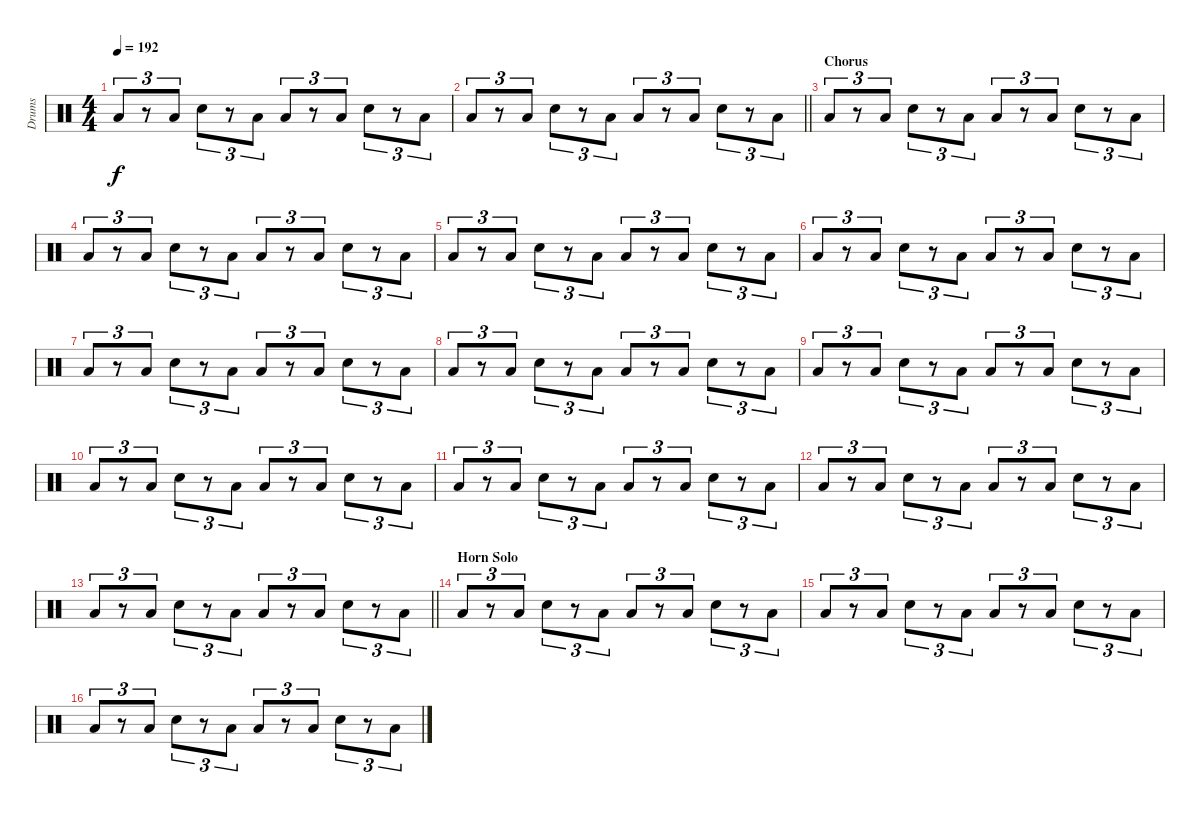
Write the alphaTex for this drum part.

\track ("Drums" "Drums") {instrument percussion}
\staff {score}
\articulation defaults
\ts (4 4)
\tempo 192
\clef neutral
\ks c "Low Floor Tom (hit)".8{tu (3 2) dy f}
r.8{tu (3 2)} "Low Tom (hit)".8{tu (3 2)} "Snare (hit) 2".8{tu (3 2)} r.8{tu (3 2)} "Low Tom (hit)".8{tu (3 2)} "Low Floor Tom (hit)".8{tu (3 2)} r.8{tu (3 2)} "Low Tom (hit)".8{tu (3 2)} "Snare (hit) 2".8{tu (3 2)} r.8{tu (3 2)} "Low Tom (hit)".8{tu (3 2)} |
\barLineRight lightlight "Low Floor Tom (hit)".8{tu (3 2)}
r.8{tu (3 2)} "Low Tom (hit)".8{tu (3 2)} "Snare (hit) 2".8{tu (3 2)} r.8{tu (3 2)} "Low Tom (hit)".8{tu (3 2)} "Low Floor Tom (hit)".8{tu (3 2)} r.8{tu (3 2)} "Low Tom (hit)".8{tu (3 2)} "Snare (hit) 2".8{tu (3 2)} r.8{tu (3 2)} "Low Tom (hit)".8{tu (3 2)} |
\section ("" "Chorus")
"Low Floor Tom (hit)".8{tu (3 2)} r.8{tu (3 2)} "Low Tom (hit)".8{tu (3 2)} "Snare (hit) 2".8{tu (3 2)} r.8{tu (3 2)} "Low Tom (hit)".8{tu (3 2)} "Low Floor Tom (hit)".8{tu (3 2)} r.8{tu (3 2)} "Low Tom (hit)".8{tu (3 2)} "Snare (hit) 2".8{tu (3 2)} r.8{tu (3 2)} "Low Tom (hit)".8{tu (3 2)} |
"Low Floor Tom (hit)".8{tu (3 2)} r.8{tu (3 2)} "Low Tom (hit)".8{tu (3 2)} "Snare (hit) 2".8{tu (3 2)} r.8{tu (3 2)} "Low Tom (hit)".8{tu (3 2)} "Low Floor Tom (hit)".8{tu (3 2)} r.8{tu (3 2)} "Low Tom (hit)".8{tu (3 2)} "Snare (hit) 2".8{tu (3 2)} r.8{tu (3 2)} "Low Tom (hit)".8{tu (3 2)} |
"Low Floor Tom (hit)".8{tu (3 2)} r.8{tu (3 2)} "Low Tom (hit)".8{tu (3 2)} "Snare (hit) 2".8{tu (3 2)} r.8{tu (3 2)} "Low Tom (hit)".8{tu (3 2)} "Low Floor Tom (hit)".8{tu (3 2)} r.8{tu (3 2)} "Low Tom (hit)".8{tu (3 2)} "Snare (hit) 2".8{tu (3 2)} r.8{tu (3 2)} "Low Tom (hit)".8{tu (3 2)} |
"Low Floor Tom (hit)".8{tu (3 2)} r.8{tu (3 2)} "Low Tom (hit)".8{tu (3 2)} "Snare (hit) 2".8{tu (3 2)} r.8{tu (3 2)} "Low Tom (hit)".8{tu (3 2)} "Low Floor Tom (hit)".8{tu (3 2)} r.8{tu (3 2)} "Low Tom (hit)".8{tu (3 2)} "Snare (hit) 2".8{tu (3 2)} r.8{tu (3 2)} "Low Tom (hit)".8{tu (3 2)} |
"Low Floor Tom (hit)".8{tu (3 2)} r.8{tu (3 2)} "Low Tom (hit)".8{tu (3 2)} "Snare (hit) 2".8{tu (3 2)} r.8{tu (3 2)} "Low Tom (hit)".8{tu (3 2)} "Low Floor Tom (hit)".8{tu (3 2)} r.8{tu (3 2)} "Low Tom (hit)".8{tu (3 2)} "Snare (hit) 2".8{tu (3 2)} r.8{tu (3 2)} "Low Tom (hit)".8{tu (3 2)} |
"Low Floor Tom (hit)".8{tu (3 2)} r.8{tu (3 2)} "Low Tom (hit)".8{tu (3 2)} "Snare (hit) 2".8{tu (3 2)} r.8{tu (3 2)} "Low Tom (hit)".8{tu (3 2)} "Low Floor Tom (hit)".8{tu (3 2)} r.8{tu (3 2)} "Low Tom (hit)".8{tu (3 2)} "Snare (hit) 2".8{tu (3 2)} r.8{tu (3 2)} "Low Tom (hit)".8{tu (3 2)} |
"Low Floor Tom (hit)".8{tu (3 2)} r.8{tu (3 2)} "Low Tom (hit)".8{tu (3 2)} "Snare (hit) 2".8{tu (3 2)} r.8{tu (3 2)} "Low Tom (hit)".8{tu (3 2)} "Low Floor Tom (hit)".8{tu (3 2)} r.8{tu (3 2)} "Low Tom (hit)".8{tu (3 2)} "Snare (hit) 2".8{tu (3 2)} r.8{tu (3 2)} "Low Tom (hit)".8{tu (3 2)} |
"Low Floor Tom (hit)".8{tu (3 2)} r.8{tu (3 2)} "Low Tom (hit)".8{tu (3 2)} "Snare (hit) 2".8{tu (3 2)} r.8{tu (3 2)} "Low Tom (hit)".8{tu (3 2)} "Low Floor Tom (hit)".8{tu (3 2)} r.8{tu (3 2)} "Low Tom (hit)".8{tu (3 2)} "Snare (hit) 2".8{tu (3 2)} r.8{tu (3 2)} "Low Tom (hit)".8{tu (3 2)} |
"Low Floor Tom (hit)".8{tu (3 2)} r.8{tu (3 2)} "Low Tom (hit)".8{tu (3 2)} "Snare (hit) 2".8{tu (3 2)} r.8{tu (3 2)} "Low Tom (hit)".8{tu (3 2)} "Low Floor Tom (hit)".8{tu (3 2)} r.8{tu (3 2)} "Low Tom (hit)".8{tu (3 2)} "Snare (hit) 2".8{tu (3 2)} r.8{tu (3 2)} "Low Tom (hit)".8{tu (3 2)} |
"Low Floor Tom (hit)".8{tu (3 2)} r.8{tu (3 2)} "Low Tom (hit)".8{tu (3 2)} "Snare (hit) 2".8{tu (3 2)} r.8{tu (3 2)} "Low Tom (hit)".8{tu (3 2)} "Low Floor Tom (hit)".8{tu (3 2)} r.8{tu (3 2)} "Low Tom (hit)".8{tu (3 2)} "Snare (hit) 2".8{tu (3 2)} r.8{tu (3 2)} "Low Tom (hit)".8{tu (3 2)} |
\barLineRight lightlight "Low Floor Tom (hit)".8{tu (3 2)}
r.8{tu (3 2)} "Low Tom (hit)".8{tu (3 2)} "Snare (hit) 2".8{tu (3 2)} r.8{tu (3 2)} "Low Tom (hit)".8{tu (3 2)} "Low Floor Tom (hit)".8{tu (3 2)} r.8{tu (3 2)} "Low Tom (hit)".8{tu (3 2)} "Snare (hit) 2".8{tu (3 2)} r.8{tu (3 2)} "Low Tom (hit)".8{tu (3 2)} |
\section ("" "Horn Solo")
"Low Floor Tom (hit)".8{tu (3 2)} r.8{tu (3 2)} "Low Tom (hit)".8{tu (3 2)} "Snare (hit) 2".8{tu (3 2)} r.8{tu (3 2)} "Low Tom (hit)".8{tu (3 2)} "Low Floor Tom (hit)".8{tu (3 2)} r.8{tu (3 2)} "Low Tom (hit)".8{tu (3 2)} "Snare (hit) 2".8{tu (3 2)} r.8{tu (3 2)} "Low Tom (hit)".8{tu (3 2)} |
"Low Floor Tom (hit)".8{tu (3 2)} r.8{tu (3 2)} "Low Tom (hit)".8{tu (3 2)} "Snare (hit) 2".8{tu (3 2)} r.8{tu (3 2)} "Low Tom (hit)".8{tu (3 2)} "Low Floor Tom (hit)".8{tu (3 2)} r.8{tu (3 2)} "Low Tom (hit)".8{tu (3 2)} "Snare (hit) 2".8{tu (3 2)} r.8{tu (3 2)} "Low Tom (hit)".8{tu (3 2)} |
"Low Floor Tom (hit)".8{tu (3 2)} r.8{tu (3 2)} "Low Tom (hit)".8{tu (3 2)} "Snare (hit) 2".8{tu (3 2)} r.8{tu (3 2)} "Low Tom (hit)".8{tu (3 2)} "Low Floor Tom (hit)".8{tu (3 2)} r.8{tu (3 2)} "Low Tom (hit)".8{tu (3 2)} "Snare (hit) 2".8{tu (3 2)} r.8{tu (3 2)} "Low Tom (hit)".8{tu (3 2)}
